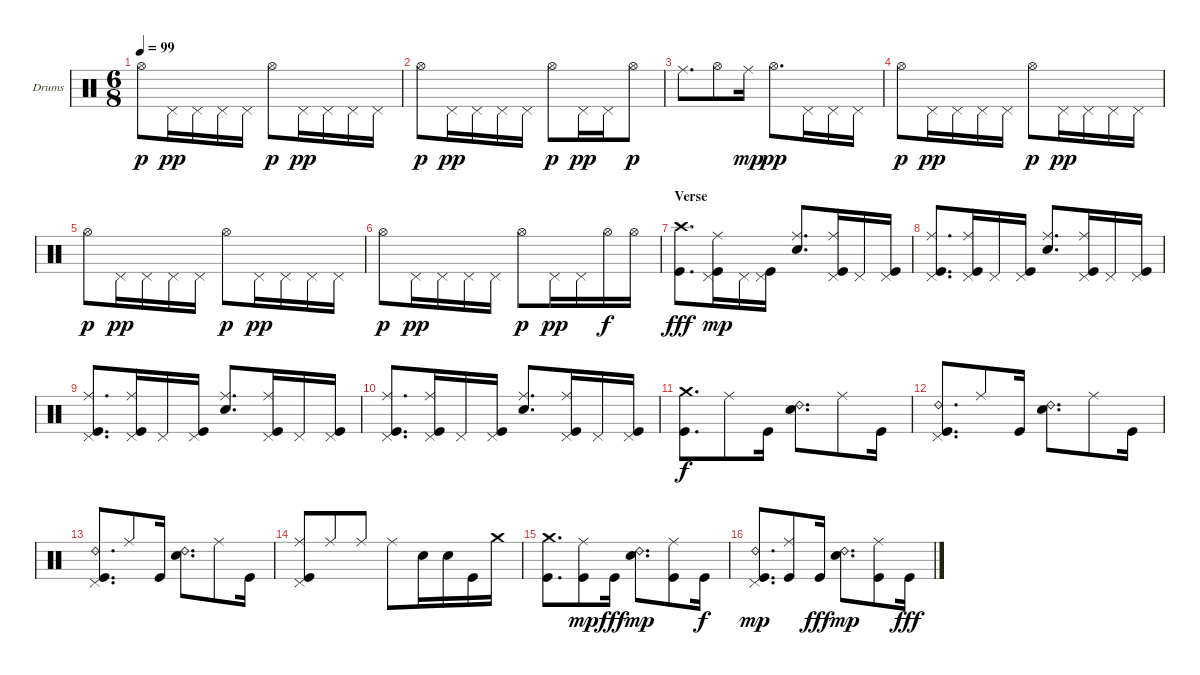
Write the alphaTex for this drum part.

\defaultSystemsLayout 4
\bracketExtendMode nobrackets
\firstSystemTrackNameOrientation horizontal
\otherSystemsTrackNameOrientation horizontal
\track ("Dave Abbruzzese" "Drums") {solo instrument percussion}
\staff {score}
\articulation defaults
\ts (6 8)
\tempo 99
\clef neutral
\ks c "Hi-Hat (open)".8{dy p} "Pedal Hi-Hat (hit)".16{dy pp} "Pedal Hi-Hat (hit)".16 "Pedal Hi-Hat (hit)".16 "Pedal Hi-Hat (hit)".16 "Hi-Hat (open)".8{dy p} "Pedal Hi-Hat (hit)".16{dy pp} "Pedal Hi-Hat (hit)".16 "Pedal Hi-Hat (hit)".16 "Pedal Hi-Hat (hit)".16
|
"Hi-Hat (open)".8{dy p} "Pedal Hi-Hat (hit)".16{dy pp} "Pedal Hi-Hat (hit)".16 "Pedal Hi-Hat (hit)".16 "Pedal Hi-Hat (hit)".16 "Hi-Hat (open)".8{dy p} "Pedal Hi-Hat (hit)".16{dy pp} "Pedal Hi-Hat (hit)".16 "Hi-Hat (open)".8{dy p} |
"Ride (middle)".8{d} "Hi-Hat (open)".8 "Ride (middle)".16{dy mp} "Hi-Hat (open)".8{d dy pp} "Pedal Hi-Hat (hit)".16 "Pedal Hi-Hat (hit)".16 "Pedal Hi-Hat (hit)".16 |
"Hi-Hat (open)".8{dy p} "Pedal Hi-Hat (hit)".16{dy pp} "Pedal Hi-Hat (hit)".16 "Pedal Hi-Hat (hit)".16 "Pedal Hi-Hat (hit)".16 "Hi-Hat (open)".8{dy p} "Pedal Hi-Hat (hit)".16{dy pp} "Pedal Hi-Hat (hit)".16 "Pedal Hi-Hat (hit)".16 "Pedal Hi-Hat (hit)".16 |
"Hi-Hat (open)".8{dy p} "Pedal Hi-Hat (hit)".16{dy pp} "Pedal Hi-Hat (hit)".16 "Pedal Hi-Hat (hit)".16 "Pedal Hi-Hat (hit)".16 "Hi-Hat (open)".8{dy p} "Pedal Hi-Hat (hit)".16{dy pp} "Pedal Hi-Hat (hit)".16 "Pedal Hi-Hat (hit)".16 "Pedal Hi-Hat (hit)".16 |
"Hi-Hat (open)".8{dy p} "Pedal Hi-Hat (hit)".16{dy pp} "Pedal Hi-Hat (hit)".16 "Pedal Hi-Hat (hit)".16 "Pedal Hi-Hat (hit)".16 "Hi-Hat (open)".8{dy p} "Pedal Hi-Hat (hit)".16{dy pp} "Pedal Hi-Hat (hit)".16 "Hi-Hat (open)".16{dy f} "Hi-Hat (open)".16 |
\section ("" "Verse")
("Crash high (hit)" "Kick (hit)").8{d dy fff} ("Pedal Hi-Hat (hit)" "Ride (middle)" "Kick (hit)").16{dy mp} "Pedal Hi-Hat (hit)".16 ("Pedal Hi-Hat (hit)" "Kick (hit)").16 ("Ride (middle)" "Snare (hit) 2").8{d} ("Pedal Hi-Hat (hit)" "Ride (middle)" "Kick (hit)").16 "Pedal Hi-Hat (hit)".16 ("Pedal Hi-Hat (hit)" "Kick (hit)").16 |
("Ride (middle)" "Pedal Hi-Hat (hit)" "Kick (hit)").8{d} ("Pedal Hi-Hat (hit)" "Ride (middle)" "Kick (hit)").16 "Pedal Hi-Hat (hit)".16 ("Pedal Hi-Hat (hit)" "Kick (hit)").16 ("Ride (middle)" "Snare (hit) 2").8{d} ("Pedal Hi-Hat (hit)" "Ride (middle)" "Kick (hit)").16 "Pedal Hi-Hat (hit)".16 ("Pedal Hi-Hat (hit)" "Kick (hit)").16 |
("Ride (middle)" "Pedal Hi-Hat (hit)" "Kick (hit)").8{d} ("Pedal Hi-Hat (hit)" "Ride (middle)" "Kick (hit)").16 "Pedal Hi-Hat (hit)".16 ("Pedal Hi-Hat (hit)" "Kick (hit)").16 ("Ride (middle)" "Snare (hit) 2").8{d} ("Pedal Hi-Hat (hit)" "Ride (middle)" "Kick (hit)").16 "Pedal Hi-Hat (hit)".16 ("Pedal Hi-Hat (hit)" "Kick (hit)").16 |
("Ride (middle)" "Pedal Hi-Hat (hit)" "Kick (hit)").8{d} ("Pedal Hi-Hat (hit)" "Ride (middle)" "Kick (hit)").16 "Pedal Hi-Hat (hit)".16 ("Pedal Hi-Hat (hit)" "Kick (hit)").16 ("Ride (middle)" "Snare (hit) 2").8{d} ("Pedal Hi-Hat (hit)" "Ride (middle)" "Kick (hit)").16 "Pedal Hi-Hat (hit)".16 ("Pedal Hi-Hat (hit)" "Kick (hit)").16 |
("Crash medium (hit)" "Kick (hit)").8{d dy f} "Ride (middle)".8 "Kick (hit)".16 ("Ride (bell) 2" "Snare (hit) 2").8{d} "Ride (middle)".8 "Kick (hit)".16 |
("Ride (bell) 2" "Pedal Hi-Hat (hit)" "Kick (hit)").8{d} "Ride (middle)".8 "Kick (hit)".16 ("Ride (bell) 2" "Snare (hit) 2").8{d} "Ride (middle)".8 "Kick (hit)".16 |
("Ride (bell) 2" "Pedal Hi-Hat (hit)" "Kick (hit)").8{d} "Ride (middle)".8 "Kick (hit)".16 ("Ride (bell) 2" "Snare (hit) 2").8{d} "Ride (middle)".8 "Kick (hit)".16 |
("Ride (middle)" "Pedal Hi-Hat (hit)" "Kick (hit)").8 "Ride (middle)".8 "Ride (middle)".8 "Ride (middle)".8 "Snare (hit) 2".16 "Snare (hit) 2".16 "Kick (hit)".16 "Crash medium (hit)".16 |
("Crash medium (hit)" "Kick (hit)").8{d} ("Ride (middle)" "Kick (hit)").8{dy mp} "Kick (hit)".16{dy fff} ("Ride (bell) 2" "Snare (hit) 2").8{d dy mp} ("Ride (middle)" "Kick (hit)").8 "Kick (hit)".16{dy f} |
("Ride (bell) 2" "Pedal Hi-Hat (hit)" "Kick (hit)").8{d dy mp} ("Ride (middle)" "Kick (hit)").8 "Kick (hit)".16{dy fff} ("Ride (bell) 2" "Snare (hit) 2").8{d dy mp} ("Ride (middle)" "Kick (hit)").8 "Kick (hit)".16{dy fff}
